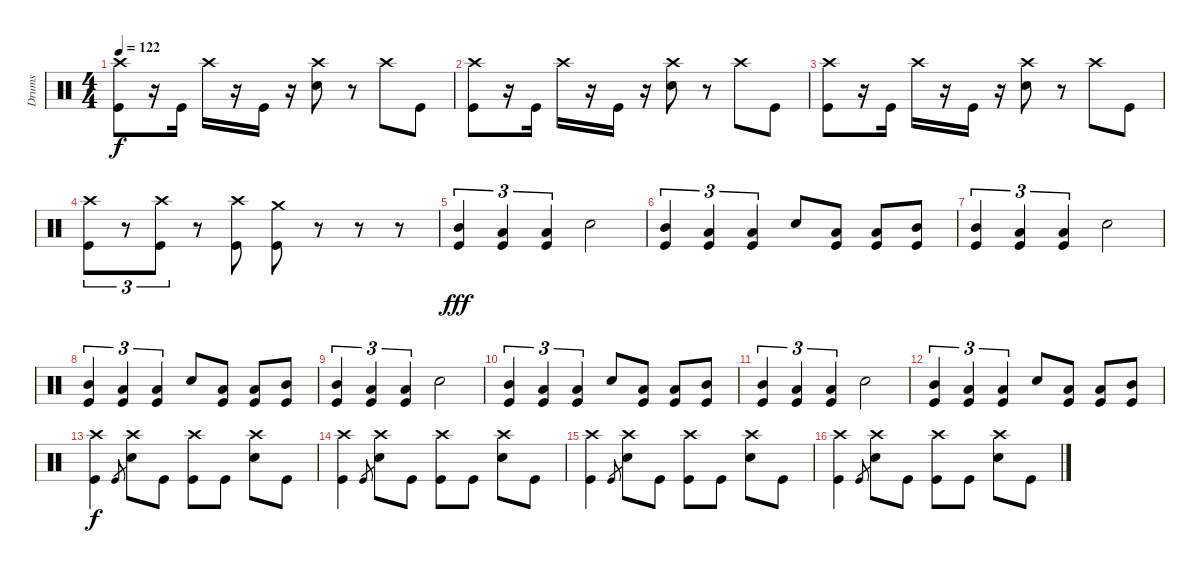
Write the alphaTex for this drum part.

\track ("Drums" "Drums") {instrument percussion}
\staff {score}
\articulation defaults
\ts (4 4)
\tempo 122
\clef neutral
\ks c
("Crash high (hit)" "Kick (hit)").8{dy f} r.16 "Kick (hit)".16 "Crash high (hit)".16 r.16 "Kick (hit)".16 r.16 ("Crash high (hit)" "Snare (hit) 2").8 r.8 "Crash high (hit)".8 "Kick (hit)".8 |
("Crash high (hit)" "Kick (hit)").8 r.16 "Kick (hit)".16 "Crash high (hit)".16 r.16 "Kick (hit)".16 r.16 ("Crash high (hit)" "Snare (hit) 2").8 r.8 "Crash high (hit)".8 "Kick (hit)".8 |
("Crash high (hit)" "Kick (hit)").8 r.16 "Kick (hit)".16 "Crash high (hit)".16 r.16 "Kick (hit)".16 r.16 ("Crash high (hit)" "Snare (hit) 2").8 r.8 "Crash high (hit)".8 "Kick (hit)".8 |
("Crash high (hit)" "Kick (hit)").8{tu (3 2)} r.8{tu (3 2)} ("Crash high (hit)" "Kick (hit)").8{tu (3 2)} r.8 ("Crash high (hit)" "Kick (hit)").8 ("Crash medium (hit)" "Kick (hit)").8 r.8 r.8 r.8 |
("Mid Tom (hit)" "Kick (hit)").4{tu (3 2) dy fff} ("Low Tom (hit)" "Kick (hit)").4{tu (3 2)} ("Low Tom (hit)" "Kick (hit)").4{tu (3 2)} "Snare (hit) 2".2 |
("Mid Tom (hit)" "Kick (hit)").4{tu (3 2)} ("Low Tom (hit)" "Kick (hit)").4{tu (3 2)} ("Low Tom (hit)" "Kick (hit)").4{tu (3 2)} "Snare (hit) 2".8 ("Low Tom (hit)" "Kick (hit)").8 ("Low Tom (hit)" "Kick (hit)").8 ("Mid Tom (hit)" "Kick (hit)").8 |
("Mid Tom (hit)" "Kick (hit)").4{tu (3 2)} ("Low Tom (hit)" "Kick (hit)").4{tu (3 2)} ("Low Tom (hit)" "Kick (hit)").4{tu (3 2)} "Snare (hit) 2".2 |
("Mid Tom (hit)" "Kick (hit)").4{tu (3 2)} ("Low Tom (hit)" "Kick (hit)").4{tu (3 2)} ("Low Tom (hit)" "Kick (hit)").4{tu (3 2)} "Snare (hit) 2".8 ("Low Tom (hit)" "Kick (hit)").8 ("Low Tom (hit)" "Kick (hit)").8 ("Mid Tom (hit)" "Kick (hit)").8 |
("Mid Tom (hit)" "Kick (hit)").4{tu (3 2)} ("Low Tom (hit)" "Kick (hit)").4{tu (3 2)} ("Low Tom (hit)" "Kick (hit)").4{tu (3 2)} "Snare (hit) 2".2 |
("Mid Tom (hit)" "Kick (hit)").4{tu (3 2)} ("Low Tom (hit)" "Kick (hit)").4{tu (3 2)} ("Low Tom (hit)" "Kick (hit)").4{tu (3 2)} "Snare (hit) 2".8 ("Low Tom (hit)" "Kick (hit)").8 ("Low Tom (hit)" "Kick (hit)").8 ("Mid Tom (hit)" "Kick (hit)").8 |
("Mid Tom (hit)" "Kick (hit)").4{tu (3 2)} ("Low Tom (hit)" "Kick (hit)").4{tu (3 2)} ("Low Tom (hit)" "Kick (hit)").4{tu (3 2)} "Snare (hit) 2".2 |
("Mid Tom (hit)" "Kick (hit)").4{tu (3 2)} ("Low Tom (hit)" "Kick (hit)").4{tu (3 2)} ("Low Tom (hit)" "Kick (hit)").4{tu (3 2)} "Snare (hit) 2".8 ("Low Tom (hit)" "Kick (hit)").8 ("Low Tom (hit)" "Kick (hit)").8 ("Mid Tom (hit)" "Kick (hit)").8 |
("Crash high (hit)" "Kick (hit)").4{dy f} "Kick (hit)".8{gr} ("Crash high (hit)" "Snare (hit) 2").8 "Kick (hit)".8 ("Crash high (hit)" "Kick (hit)").8 "Kick (hit)".8 ("Crash high (hit)" "Snare (hit) 2").8 "Kick (hit)".8 |
("Crash high (hit)" "Kick (hit)").4 "Kick (hit)".8{gr} ("Crash high (hit)" "Snare (hit) 2").8 "Kick (hit)".8 ("Crash high (hit)" "Kick (hit)").8 "Kick (hit)".8 ("Crash high (hit)" "Snare (hit) 2").8 "Kick (hit)".8 |
("Crash high (hit)" "Kick (hit)").4 "Kick (hit)".8{gr} ("Crash high (hit)" "Snare (hit) 2").8 "Kick (hit)".8 ("Crash high (hit)" "Kick (hit)").8 "Kick (hit)".8 ("Crash high (hit)" "Snare (hit) 2").8 "Kick (hit)".8 |
("Crash high (hit)" "Kick (hit)").4 "Kick (hit)".8{gr} ("Crash high (hit)" "Snare (hit) 2").8 "Kick (hit)".8 ("Crash high (hit)" "Kick (hit)").8 "Kick (hit)".8 ("Crash high (hit)" "Snare (hit) 2").8 "Kick (hit)".8
